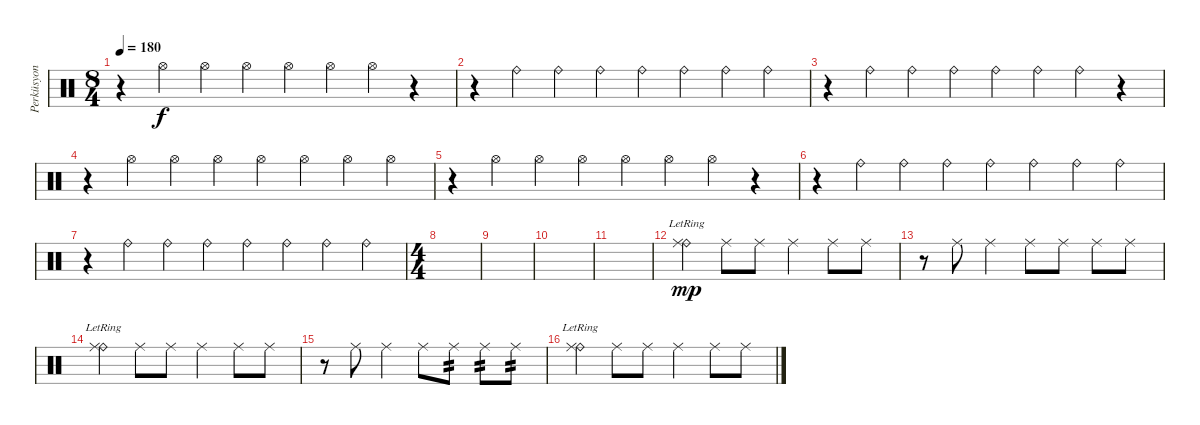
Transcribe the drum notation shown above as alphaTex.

\track ("Perküsyon" "Perküsyon") {instrument percussion}
\staff {score}
\articulation defaults
\ts (8 4)
\tempo 180
\clef neutral
\ks c
r.4{dy f} "Hi-Hat (open)".4 "Hi-Hat (open)".4 "Hi-Hat (open)".4 "Hi-Hat (open)".4 "Hi-Hat (open)".4 "Hi-Hat (open)".4 r.4 |
r.4 "Ride (bell)".4 "Ride (bell)".4 "Ride (bell)".4 "Ride (bell)".4 "Ride (bell)".4 "Ride (bell)".4 "Ride (bell)".4 |
r.4 "Ride (bell)".4 "Ride (bell)".4 "Ride (bell)".4 "Ride (bell)".4 "Ride (bell)".4 "Ride (bell)".4 r.4 |
r.4 "Hi-Hat (open)".4 "Hi-Hat (open)".4 "Hi-Hat (open)".4 "Hi-Hat (open)".4 "Hi-Hat (open)".4 "Hi-Hat (open)".4 "Hi-Hat (open)".4 |
r.4 "Hi-Hat (open)".4 "Hi-Hat (open)".4 "Hi-Hat (open)".4 "Hi-Hat (open)".4 "Hi-Hat (open)".4 "Hi-Hat (open)".4 r.4 |
r.4 "Ride (bell)".4 "Ride (bell)".4 "Ride (bell)".4 "Ride (bell)".4 "Ride (bell)".4 "Ride (bell)".4 "Ride (bell)".4 |
r.4 "Ride (bell)".4 "Ride (bell)".4 "Ride (bell)".4 "Ride (bell)".4 "Ride (bell)".4 "Ride (bell)".4 "Ride (bell)".4 |
\ts (4 4)
|
|
|
|
("Ride (bell)"{lr} "Ride (middle)").4{dy mp} "Ride (middle)".8 "Ride (middle)".8 "Ride (middle)".4 "Ride (middle)".8 "Ride (middle)".8 |
r.8 "Ride (middle)".8 "Ride (middle)".4 "Ride (middle)".8 "Ride (middle)".8 "Ride (middle)".8 "Ride (middle)".8 |
("Ride (bell)"{lr} "Ride (middle)").4 "Ride (middle)".8 "Ride (middle)".8 "Ride (middle)".4 "Ride (middle)".8 "Ride (middle)".8 |
r.8 "Ride (middle)".8 "Ride (middle)".4 "Ride (middle)".8 "Ride (middle)".8{tp 2} "Ride (middle)".8{tp 2} "Ride (middle)".8{tp 2} |
("Ride (bell)"{lr} "Ride (middle)").4 "Ride (middle)".8 "Ride (middle)".8 "Ride (middle)".4 "Ride (middle)".8 "Ride (middle)".8
